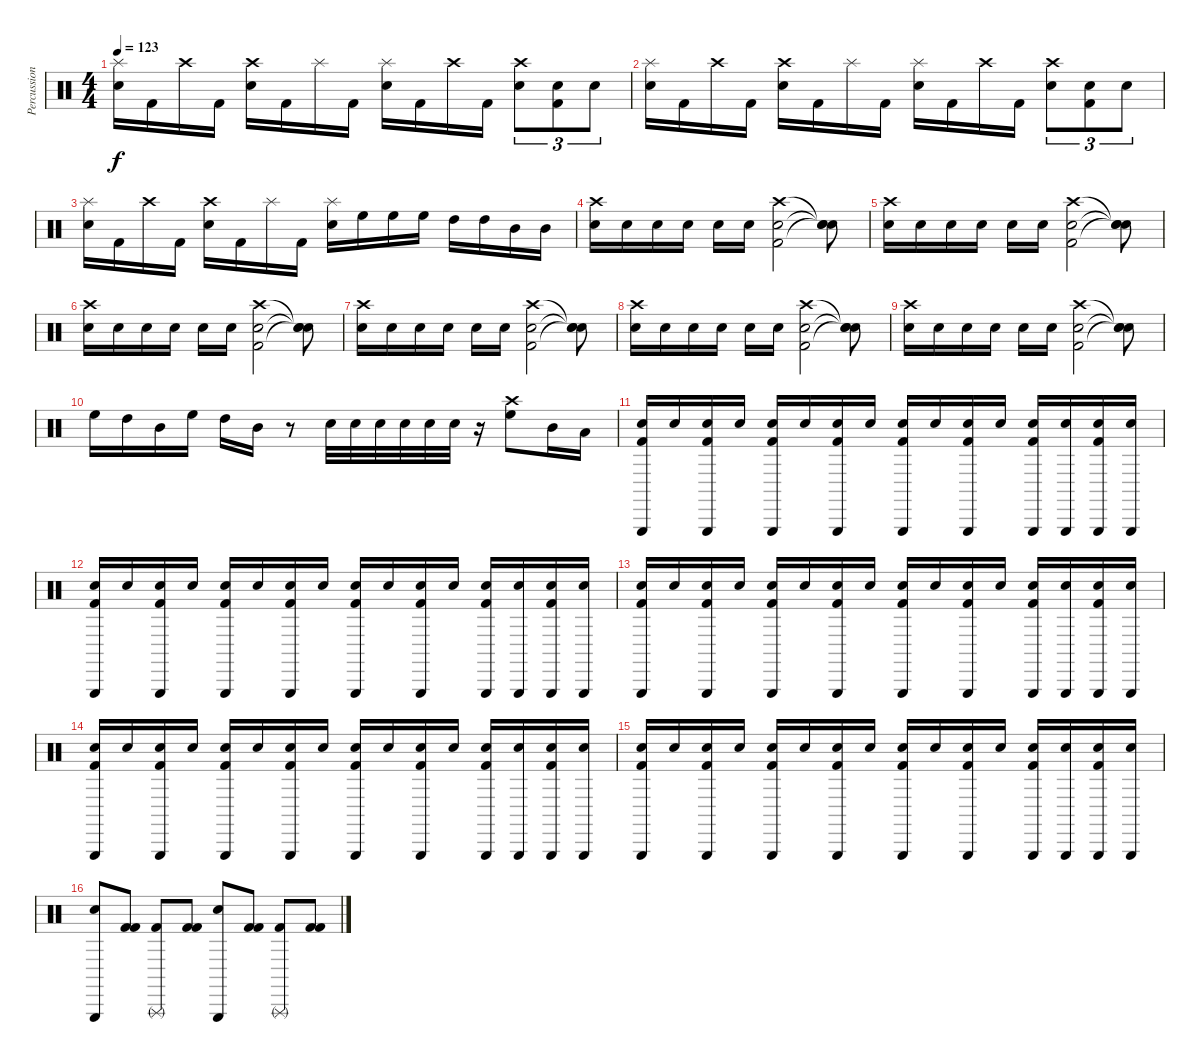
\track ("Percussion" "Percussion") {instrument percussion}
\staff {score}
\articulation defaults
\ts (4 4)
\tempo 123
\clef neutral
\ks c
("Splash (hit)" "Electric Snare (hit)").16{dy f} "Kick (hit) 2".16 "Crash high (hit)".16 "Kick (hit) 2".16 ("Crash high (hit)" "Electric Snare (hit)").16 "Kick (hit) 2".16 "Splash (hit)".16 "Kick (hit) 2".16 ("Splash (hit)" "Electric Snare (hit)").16 "Kick (hit) 2".16 "Crash high (hit)".16 "Kick (hit) 2".16 ("Crash high (hit)" "Electric Snare (hit)").8{tu (3 2)} ("Electric Snare (hit)" "Kick (hit) 2").8{tu (3 2)} "Electric Snare (hit)".8{tu (3 2)} |
("Splash (hit)" "Electric Snare (hit)").16 "Kick (hit) 2".16 "Crash high (hit)".16 "Kick (hit) 2".16 ("Crash high (hit)" "Electric Snare (hit)").16 "Kick (hit) 2".16 "Splash (hit)".16 "Kick (hit) 2".16 ("Splash (hit)" "Electric Snare (hit)").16 "Kick (hit) 2".16 "Crash high (hit)".16 "Kick (hit) 2".16 ("Crash high (hit)" "Electric Snare (hit)").8{tu (3 2)} ("Electric Snare (hit)" "Kick (hit) 2").8{tu (3 2)} "Electric Snare (hit)".8{tu (3 2)} |
("Splash (hit)" "Electric Snare (hit)").16 "Kick (hit) 2".16 "Crash high (hit)".16 "Kick (hit) 2".16 ("Crash high (hit)" "Electric Snare (hit)").16 "Kick (hit) 2".16 "Splash (hit)".16 "Kick (hit) 2".16 ("Splash (hit)" "Electric Snare (hit)").16 "High Floor Tom (hit)".16 "High Floor Tom (hit)".16 "High Floor Tom (hit)".16 "High Tom (hit)".16 "High Tom (hit)".16 "Mid Tom (hit)".16 "Mid Tom (hit)".16 |
("Crash high (hit)" "Electric Snare (hit)").16 "Electric Snare (hit)".16 "Electric Snare (hit)".16 "Electric Snare (hit)".16 "Electric Snare (hit)".16 "Electric Snare (hit)".16 ("Crash high (hit)" "Electric Snare (hit)" "Kick (hit) 2").2 ("Snare (hit)"{t} "Snare (hit)"{t} "Snare (hit)"{t}).8 |
("Crash high (hit)" "Electric Snare (hit)").16 "Electric Snare (hit)".16 "Electric Snare (hit)".16 "Electric Snare (hit)".16 "Electric Snare (hit)".16 "Electric Snare (hit)".16 ("Crash high (hit)" "Electric Snare (hit)" "Kick (hit) 2").2 ("Snare (hit)"{t} "Snare (hit)"{t} "Snare (hit)"{t}).8 |
("Crash high (hit)" "Electric Snare (hit)").16 "Electric Snare (hit)".16 "Electric Snare (hit)".16 "Electric Snare (hit)".16 "Electric Snare (hit)".16 "Electric Snare (hit)".16 ("Crash high (hit)" "Electric Snare (hit)" "Kick (hit) 2").2 ("Snare (hit)"{t} "Snare (hit)"{t} "Snare (hit)"{t}).8 |
("Crash high (hit)" "Electric Snare (hit)").16 "Electric Snare (hit)".16 "Electric Snare (hit)".16 "Electric Snare (hit)".16 "Electric Snare (hit)".16 "Electric Snare (hit)".16 ("Crash high (hit)" "Electric Snare (hit)" "Kick (hit) 2").2 ("Snare (hit)"{t} "Snare (hit)"{t} "Snare (hit)"{t}).8 |
("Crash high (hit)" "Electric Snare (hit)").16 "Electric Snare (hit)".16 "Electric Snare (hit)".16 "Electric Snare (hit)".16 "Electric Snare (hit)".16 "Electric Snare (hit)".16 ("Crash high (hit)" "Electric Snare (hit)" "Kick (hit) 2").2 ("Snare (hit)"{t} "Snare (hit)"{t} "Snare (hit)"{t}).8 |
("Crash high (hit)" "Electric Snare (hit)").16 "Electric Snare (hit)".16 "Electric Snare (hit)".16 "Electric Snare (hit)".16 "Electric Snare (hit)".16 "Electric Snare (hit)".16 ("Crash high (hit)" "Electric Snare (hit)" "Kick (hit) 2").2 ("Snare (hit)"{t} "Snare (hit)"{t} "Snare (hit)"{t}).8 |
"High Floor Tom (hit)".16 "High Tom (hit)".16 "Mid Tom (hit)".16 "High Floor Tom (hit)".16 "High Tom (hit)".16 "Mid Tom (hit)".16 r.8 "Electric Snare (hit)".32 "Electric Snare (hit)".32 "Electric Snare (hit)".32 "Electric Snare (hit)".32 "Electric Snare (hit)".32 "Electric Snare (hit)".32 r.16 ("Crash high (hit)" "High Floor Tom (hit)").8 "Mid Tom (hit)".16 "Low Tom (hit)".16 |
("Triangle (hit)" "Electric Snare (hit)" "Kick (hit) 2").16 "Electric Snare (hit)".16 ("Triangle (hit)" "Electric Snare (hit)" "Kick (hit) 2").16 "Electric Snare (hit)".16 ("Triangle (hit)" "Electric Snare (hit)" "Kick (hit) 2").16 "Electric Snare (hit)".16 ("Triangle (hit)" "Electric Snare (hit)" "Kick (hit) 2").16 "Electric Snare (hit)".16 ("Triangle (hit)" "Electric Snare (hit)" "Kick (hit) 2").16 "Electric Snare (hit)".16 ("Triangle (hit)" "Electric Snare (hit)" "Kick (hit) 2").16 "Electric Snare (hit)".16 ("Triangle (hit)" "Electric Snare (hit)" "Kick (hit) 2").16 ("Triangle (hit)" "Electric Snare (hit)").16 ("Triangle (hit)" "Electric Snare (hit)" "Kick (hit) 2").16 ("Triangle (hit)" "Electric Snare (hit)").16 |
("Triangle (hit)" "Electric Snare (hit)" "Kick (hit) 2").16 "Electric Snare (hit)".16 ("Triangle (hit)" "Electric Snare (hit)" "Kick (hit) 2").16 "Electric Snare (hit)".16 ("Triangle (hit)" "Electric Snare (hit)" "Kick (hit) 2").16 "Electric Snare (hit)".16 ("Triangle (hit)" "Electric Snare (hit)" "Kick (hit) 2").16 "Electric Snare (hit)".16 ("Triangle (hit)" "Electric Snare (hit)" "Kick (hit) 2").16 "Electric Snare (hit)".16 ("Triangle (hit)" "Electric Snare (hit)" "Kick (hit) 2").16 "Electric Snare (hit)".16 ("Triangle (hit)" "Electric Snare (hit)" "Kick (hit) 2").16 ("Triangle (hit)" "Electric Snare (hit)").16 ("Triangle (hit)" "Electric Snare (hit)" "Kick (hit) 2").16 ("Triangle (hit)" "Electric Snare (hit)").16 |
("Triangle (hit)" "Electric Snare (hit)" "Kick (hit) 2").16 "Electric Snare (hit)".16 ("Triangle (hit)" "Electric Snare (hit)" "Kick (hit) 2").16 "Electric Snare (hit)".16 ("Triangle (hit)" "Electric Snare (hit)" "Kick (hit) 2").16 "Electric Snare (hit)".16 ("Triangle (hit)" "Electric Snare (hit)" "Kick (hit) 2").16 "Electric Snare (hit)".16 ("Triangle (hit)" "Electric Snare (hit)" "Kick (hit) 2").16 "Electric Snare (hit)".16 ("Triangle (hit)" "Electric Snare (hit)" "Kick (hit) 2").16 "Electric Snare (hit)".16 ("Triangle (hit)" "Electric Snare (hit)" "Kick (hit) 2").16 ("Triangle (hit)" "Electric Snare (hit)").16 ("Triangle (hit)" "Electric Snare (hit)" "Kick (hit) 2").16 ("Triangle (hit)" "Electric Snare (hit)").16 |
("Triangle (hit)" "Electric Snare (hit)" "Kick (hit) 2").16 "Electric Snare (hit)".16 ("Triangle (hit)" "Electric Snare (hit)" "Kick (hit) 2").16 "Electric Snare (hit)".16 ("Triangle (hit)" "Electric Snare (hit)" "Kick (hit) 2").16 "Electric Snare (hit)".16 ("Triangle (hit)" "Electric Snare (hit)" "Kick (hit) 2").16 "Electric Snare (hit)".16 ("Triangle (hit)" "Electric Snare (hit)" "Kick (hit) 2").16 "Electric Snare (hit)".16 ("Triangle (hit)" "Electric Snare (hit)" "Kick (hit) 2").16 "Electric Snare (hit)".16 ("Triangle (hit)" "Electric Snare (hit)" "Kick (hit) 2").16 ("Triangle (hit)" "Electric Snare (hit)").16 ("Triangle (hit)" "Electric Snare (hit)" "Kick (hit) 2").16 ("Triangle (hit)" "Electric Snare (hit)").16 |
("Triangle (hit)" "Electric Snare (hit)" "Kick (hit) 2").16 "Electric Snare (hit)".16 ("Triangle (hit)" "Electric Snare (hit)" "Kick (hit) 2").16 "Electric Snare (hit)".16 ("Triangle (hit)" "Electric Snare (hit)" "Kick (hit) 2").16 "Electric Snare (hit)".16 ("Triangle (hit)" "Electric Snare (hit)" "Kick (hit) 2").16 "Electric Snare (hit)".16 ("Triangle (hit)" "Electric Snare (hit)" "Kick (hit) 2").16 "Electric Snare (hit)".16 ("Triangle (hit)" "Electric Snare (hit)" "Kick (hit) 2").16 "Electric Snare (hit)".16 ("Triangle (hit)" "Electric Snare (hit)" "Kick (hit) 2").16 ("Triangle (hit)" "Electric Snare (hit)").16 ("Triangle (hit)" "Electric Snare (hit)" "Kick (hit) 2").16 ("Triangle (hit)" "Electric Snare (hit)").16 |
("Triangle (hit)" "Electric Snare (hit)").8 ("Kick (hit) 2" "Kick (hit) 2").8 ("Triangle (rnute)" "Kick (hit) 2").8 ("Kick (hit) 2" "Kick (hit) 2").8 ("Triangle (hit)" "Electric Snare (hit)").8 ("Kick (hit) 2" "Kick (hit) 2").8 ("Triangle (rnute)" "Kick (hit) 2").8 ("Kick (hit) 2" "Kick (hit) 2").8
